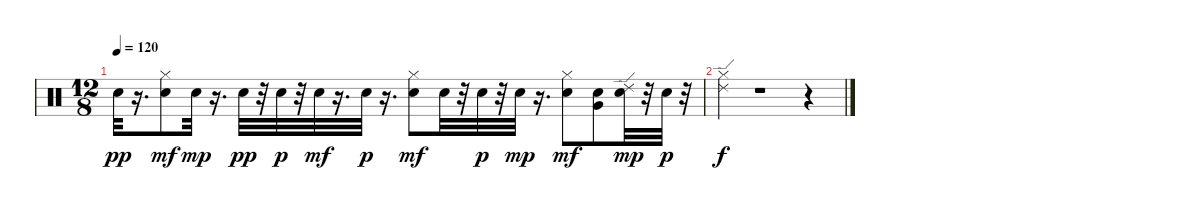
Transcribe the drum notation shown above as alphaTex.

\track "" {instrument percussion}
\staff {score}
\articulation defaults
\ts (12 8)
\tempo 120
\clef neutral
\ks c "Snare (hit) 2".32{dy pp}
r.16{d} ("Snare (hit) 2" "Hi-Hat (closed)").8{dy mf} "Snare (hit) 2".32{dy mp} r.16{d} "Snare (hit) 2".32{dy pp} r.32 "Snare (hit) 2".32{dy p} r.32 "Snare (hit) 2".32{dy mf} r.16{d} "Snare (hit) 2".32{dy p} r.16{d} ("Snare (hit) 2" "Hi-Hat (closed)").8{dy mf} "Snare (hit) 2".32 r.32 "Snare (hit) 2".32{dy p} r.32 "Snare (hit) 2".32{dy mp} r.16{d} ("Snare (hit) 2" "Hi-Hat (closed)").8{dy mf} ("Snare (hit) 2" "Very Low Tom (hit)").8 ("Snare (hit) 2" "Ride (edge) 2").32{dy mp} r.32 "Snare (hit) 2".32{dy p} r.32 |
("Ride (edge) 2" "Hi-Hat (closed)").4{dy f} r.1 r.4
